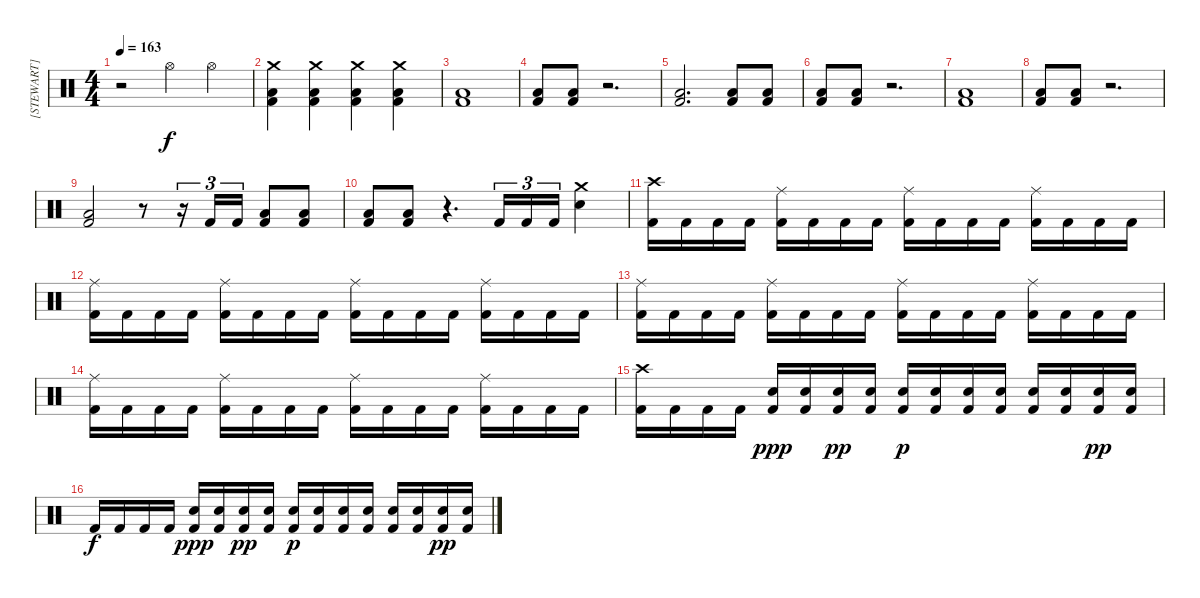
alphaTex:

\track ("[STEWART]" "[STEWART]") {instrument percussion}
\staff {score}
\articulation defaults
\ts (4 4)
\tempo 163
\clef neutral
\ks c
r.2{dy f} "Hi-Hat (open)".4 "Hi-Hat (open)".4 |
("Crash medium (hit)" "Low Floor Tom (hit)" "Kick (hit) 2").4 ("Crash medium (hit)" "Low Floor Tom (hit)" "Kick (hit) 2").4 ("Crash medium (hit)" "Low Floor Tom (hit)" "Kick (hit) 2").4 ("Crash medium (hit)" "Low Floor Tom (hit)" "Kick (hit) 2").4 |
("Low Floor Tom (hit)" "Kick (hit) 2").1 |
("Low Floor Tom (hit)" "Kick (hit) 2").8 ("Low Floor Tom (hit)" "Kick (hit) 2").8 r.2{d} |
("Low Floor Tom (hit)" "Kick (hit) 2").2{d} ("Low Floor Tom (hit)" "Kick (hit) 2").8 ("Low Floor Tom (hit)" "Kick (hit) 2").8 |
("Low Floor Tom (hit)" "Kick (hit) 2").8 ("Low Floor Tom (hit)" "Kick (hit) 2").8 r.2{d} |
("Low Floor Tom (hit)" "Kick (hit) 2").1 |
("Low Floor Tom (hit)" "Kick (hit) 2").8 ("Low Floor Tom (hit)" "Kick (hit) 2").8 r.2{d} |
("Low Floor Tom (hit)" "Kick (hit) 2").2 r.8 r.16{tu (3 2)} "Kick (hit) 2".16{tu (3 2)} "Kick (hit) 2".16{tu (3 2)} ("Low Floor Tom (hit)" "Kick (hit) 2").8 ("Low Floor Tom (hit)" "Kick (hit) 2").8 |
("Low Floor Tom (hit)" "Kick (hit) 2").8 ("Low Floor Tom (hit)" "Kick (hit) 2").8 r.4{d} "Kick (hit) 2".16{tu (3 2)} "Kick (hit) 2".16{tu (3 2)} "Kick (hit) 2".16{tu (3 2)} ("Crash medium (hit)" "Electric Snare (hit)").4 |
("Crash high (hit)" "Kick (hit) 2").16 "Kick (hit) 2".16 "Kick (hit) 2".16 "Kick (hit) 2".16 ("Ride (middle)" "Kick (hit) 2").16 "Kick (hit) 2".16 "Kick (hit) 2".16 "Kick (hit) 2".16 ("Ride (middle)" "Kick (hit) 2").16 "Kick (hit) 2".16 "Kick (hit) 2".16 "Kick (hit) 2".16 ("Ride (middle)" "Kick (hit) 2").16 "Kick (hit) 2".16 "Kick (hit) 2".16 "Kick (hit) 2".16 |
("Ride (middle)" "Kick (hit) 2").16 "Kick (hit) 2".16 "Kick (hit) 2".16 "Kick (hit) 2".16 ("Ride (middle)" "Kick (hit) 2").16 "Kick (hit) 2".16 "Kick (hit) 2".16 "Kick (hit) 2".16 ("Ride (middle)" "Kick (hit) 2").16 "Kick (hit) 2".16 "Kick (hit) 2".16 "Kick (hit) 2".16 ("Ride (middle)" "Kick (hit) 2").16 "Kick (hit) 2".16 "Kick (hit) 2".16 "Kick (hit) 2".16 |
("Ride (middle)" "Kick (hit) 2").16 "Kick (hit) 2".16 "Kick (hit) 2".16 "Kick (hit) 2".16 ("Ride (middle)" "Kick (hit) 2").16 "Kick (hit) 2".16 "Kick (hit) 2".16 "Kick (hit) 2".16 ("Ride (middle)" "Kick (hit) 2").16 "Kick (hit) 2".16 "Kick (hit) 2".16 "Kick (hit) 2".16 ("Ride (middle)" "Kick (hit) 2").16 "Kick (hit) 2".16 "Kick (hit) 2".16 "Kick (hit) 2".16 |
("Ride (middle)" "Kick (hit) 2").16 "Kick (hit) 2".16 "Kick (hit) 2".16 "Kick (hit) 2".16 ("Ride (middle)" "Kick (hit) 2").16 "Kick (hit) 2".16 "Kick (hit) 2".16 "Kick (hit) 2".16 ("Ride (middle)" "Kick (hit) 2").16 "Kick (hit) 2".16 "Kick (hit) 2".16 "Kick (hit) 2".16 ("Ride (middle)" "Kick (hit) 2").16 "Kick (hit) 2".16 "Kick (hit) 2".16 "Kick (hit) 2".16 |
("Crash high (hit)" "Kick (hit) 2").16 "Kick (hit) 2".16 "Kick (hit) 2".16 "Kick (hit) 2".16 ("Electric Snare (hit)" "Kick (hit) 2").16{dy ppp} ("Electric Snare (hit)" "Kick (hit) 2").16 ("Electric Snare (hit)" "Kick (hit) 2").16{dy pp} ("Electric Snare (hit)" "Kick (hit) 2").16 ("Electric Snare (hit)" "Kick (hit) 2").16{dy p} ("Electric Snare (hit)" "Kick (hit) 2").16 ("Electric Snare (hit)" "Kick (hit) 2").16 ("Electric Snare (hit)" "Kick (hit) 2").16 ("Electric Snare (hit)" "Kick (hit) 2").16 ("Electric Snare (hit)" "Kick (hit) 2").16 ("Electric Snare (hit)" "Kick (hit) 2").16{dy pp} ("Electric Snare (hit)" "Kick (hit) 2").16 |
"Kick (hit) 2".16{dy f} "Kick (hit) 2".16 "Kick (hit) 2".16 "Kick (hit) 2".16 ("Electric Snare (hit)" "Kick (hit) 2").16{dy ppp} ("Electric Snare (hit)" "Kick (hit) 2").16 ("Electric Snare (hit)" "Kick (hit) 2").16{dy pp} ("Electric Snare (hit)" "Kick (hit) 2").16 ("Electric Snare (hit)" "Kick (hit) 2").16{dy p} ("Electric Snare (hit)" "Kick (hit) 2").16 ("Electric Snare (hit)" "Kick (hit) 2").16 ("Electric Snare (hit)" "Kick (hit) 2").16 ("Electric Snare (hit)" "Kick (hit) 2").16 ("Electric Snare (hit)" "Kick (hit) 2").16 ("Electric Snare (hit)" "Kick (hit) 2").16{dy pp} ("Electric Snare (hit)" "Kick (hit) 2").16
